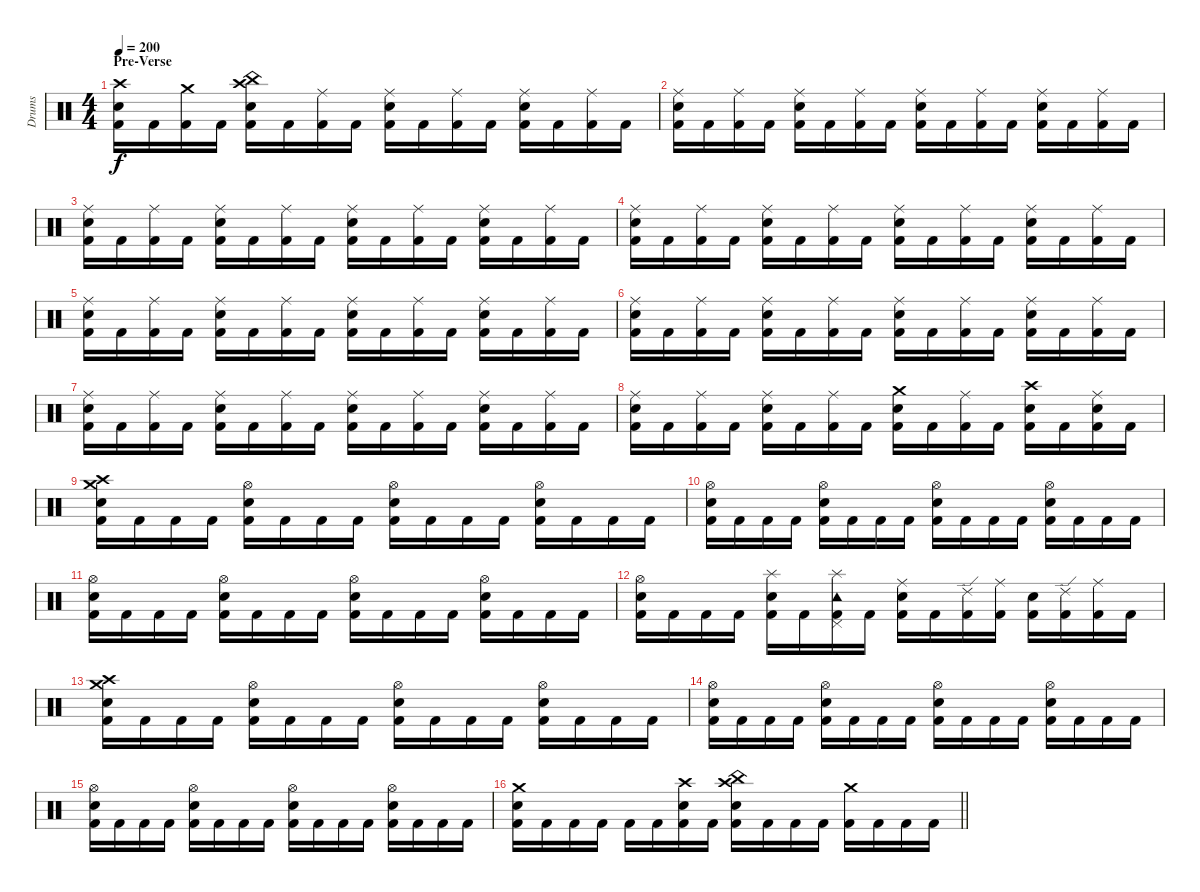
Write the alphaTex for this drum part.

\track ("Drums" "Drums") {instrument percussion}
\staff {score}
\articulation defaults
\ts (4 4)
\section ("" "Pre-Verse")
\tempo 200
\clef neutral
\ks c
("Crash high (hit)" "Electric Snare (hit)" "Kick (hit) 2").16{dy f} "Kick (hit) 2".16 ("Crash medium (hit)" "Kick (hit) 2").16 "Kick (hit) 2".16 ("China (hit)" "Crash high (hit)" "Electric Snare (hit)" "Kick (hit) 2").16 "Kick (hit) 2".16 ("Ride (middle)" "Kick (hit) 2").16 "Kick (hit) 2".16 ("Ride (middle)" "Electric Snare (hit)" "Kick (hit) 2").16 "Kick (hit) 2".16 ("Ride (middle)" "Kick (hit) 2").16 "Kick (hit) 2".16 ("Ride (middle)" "Electric Snare (hit)" "Kick (hit) 2").16 "Kick (hit) 2".16 ("Ride (middle)" "Kick (hit) 2").16 "Kick (hit) 2".16 |
("Ride (middle)" "Electric Snare (hit)" "Kick (hit) 2").16 "Kick (hit) 2".16 ("Ride (middle)" "Kick (hit) 2").16 "Kick (hit) 2".16 ("Ride (middle)" "Electric Snare (hit)" "Kick (hit) 2").16 "Kick (hit) 2".16 ("Ride (middle)" "Kick (hit) 2").16 "Kick (hit) 2".16 ("Ride (middle)" "Electric Snare (hit)" "Kick (hit) 2").16 "Kick (hit) 2".16 ("Ride (middle)" "Kick (hit) 2").16 "Kick (hit) 2".16 ("Ride (middle)" "Electric Snare (hit)" "Kick (hit) 2").16 "Kick (hit) 2".16 ("Ride (middle)" "Kick (hit) 2").16 "Kick (hit) 2".16 |
("Ride (middle)" "Electric Snare (hit)" "Kick (hit) 2").16 "Kick (hit) 2".16 ("Ride (middle)" "Kick (hit) 2").16 "Kick (hit) 2".16 ("Ride (middle)" "Electric Snare (hit)" "Kick (hit) 2").16 "Kick (hit) 2".16 ("Ride (middle)" "Kick (hit) 2").16 "Kick (hit) 2".16 ("Ride (middle)" "Electric Snare (hit)" "Kick (hit) 2").16 "Kick (hit) 2".16 ("Ride (middle)" "Kick (hit) 2").16 "Kick (hit) 2".16 ("Ride (middle)" "Electric Snare (hit)" "Kick (hit) 2").16 "Kick (hit) 2".16 ("Ride (middle)" "Kick (hit) 2").16 "Kick (hit) 2".16 |
("Ride (middle)" "Electric Snare (hit)" "Kick (hit) 2").16 "Kick (hit) 2".16 ("Ride (middle)" "Kick (hit) 2").16 "Kick (hit) 2".16 ("Ride (middle)" "Electric Snare (hit)" "Kick (hit) 2").16 "Kick (hit) 2".16 ("Ride (middle)" "Kick (hit) 2").16 "Kick (hit) 2".16 ("Ride (middle)" "Electric Snare (hit)" "Kick (hit) 2").16 "Kick (hit) 2".16 ("Ride (middle)" "Kick (hit) 2").16 "Kick (hit) 2".16 ("Ride (middle)" "Electric Snare (hit)" "Kick (hit) 2").16 "Kick (hit) 2".16 ("Ride (middle)" "Kick (hit) 2").16 "Kick (hit) 2".16 |
("Ride (middle)" "Electric Snare (hit)" "Kick (hit) 2").16 "Kick (hit) 2".16 ("Ride (middle)" "Kick (hit) 2").16 "Kick (hit) 2".16 ("Ride (middle)" "Electric Snare (hit)" "Kick (hit) 2").16 "Kick (hit) 2".16 ("Ride (middle)" "Kick (hit) 2").16 "Kick (hit) 2".16 ("Ride (middle)" "Electric Snare (hit)" "Kick (hit) 2").16 "Kick (hit) 2".16 ("Ride (middle)" "Kick (hit) 2").16 "Kick (hit) 2".16 ("Ride (middle)" "Electric Snare (hit)" "Kick (hit) 2").16 "Kick (hit) 2".16 ("Ride (middle)" "Kick (hit) 2").16 "Kick (hit) 2".16 |
("Ride (middle)" "Electric Snare (hit)" "Kick (hit) 2").16 "Kick (hit) 2".16 ("Ride (middle)" "Kick (hit) 2").16 "Kick (hit) 2".16 ("Ride (middle)" "Electric Snare (hit)" "Kick (hit) 2").16 "Kick (hit) 2".16 ("Ride (middle)" "Kick (hit) 2").16 "Kick (hit) 2".16 ("Ride (middle)" "Electric Snare (hit)" "Kick (hit) 2").16 "Kick (hit) 2".16 ("Ride (middle)" "Kick (hit) 2").16 "Kick (hit) 2".16 ("Ride (middle)" "Electric Snare (hit)" "Kick (hit) 2").16 "Kick (hit) 2".16 ("Ride (middle)" "Kick (hit) 2").16 "Kick (hit) 2".16 |
("Ride (middle)" "Electric Snare (hit)" "Kick (hit) 2").16 "Kick (hit) 2".16 ("Ride (middle)" "Kick (hit) 2").16 "Kick (hit) 2".16 ("Ride (middle)" "Electric Snare (hit)" "Kick (hit) 2").16 "Kick (hit) 2".16 ("Ride (middle)" "Kick (hit) 2").16 "Kick (hit) 2".16 ("Ride (middle)" "Electric Snare (hit)" "Kick (hit) 2").16 "Kick (hit) 2".16 ("Ride (middle)" "Kick (hit) 2").16 "Kick (hit) 2".16 ("Ride (middle)" "Electric Snare (hit)" "Kick (hit) 2").16 "Kick (hit) 2".16 ("Ride (middle)" "Kick (hit) 2").16 "Kick (hit) 2".16 |
("Ride (middle)" "Electric Snare (hit)" "Kick (hit) 2").16 "Kick (hit) 2".16 ("Ride (middle)" "Kick (hit) 2").16 "Kick (hit) 2".16 ("Ride (middle)" "Electric Snare (hit)" "Kick (hit) 2").16 "Kick (hit) 2".16 ("Ride (middle)" "Kick (hit) 2").16 "Kick (hit) 2".16 ("Crash medium (hit)" "Electric Snare (hit)" "Kick (hit) 2").16 "Kick (hit) 2".16 ("Ride (middle)" "Kick (hit) 2").16 "Kick (hit) 2".16 ("Crash high (hit)" "Electric Snare (hit)" "Kick (hit) 2").16 "Kick (hit) 2".16 ("Ride (middle)" "Electric Snare (hit)" "Kick (hit) 2").16 "Kick (hit) 2".16 |
("Crash high (hit)" "Crash medium (hit)" "Electric Snare (hit)" "Kick (hit) 2").16 "Kick (hit) 2".16 "Kick (hit) 2".16 "Kick (hit) 2".16 ("Hi-Hat (open)" "Electric Snare (hit)" "Kick (hit) 2").16 "Kick (hit) 2".16 "Kick (hit) 2".16 "Kick (hit) 2".16 ("Hi-Hat (open)" "Electric Snare (hit)" "Kick (hit) 2").16 "Kick (hit) 2".16 "Kick (hit) 2".16 "Kick (hit) 2".16 ("Hi-Hat (open)" "Electric Snare (hit)" "Kick (hit) 2").16 "Kick (hit) 2".16 "Kick (hit) 2".16 "Kick (hit) 2".16 |
("Hi-Hat (open)" "Electric Snare (hit)" "Kick (hit) 2").16 "Kick (hit) 2".16 "Kick (hit) 2".16 "Kick (hit) 2".16 ("Hi-Hat (open)" "Electric Snare (hit)" "Kick (hit) 2").16 "Kick (hit) 2".16 "Kick (hit) 2".16 "Kick (hit) 2".16 ("Hi-Hat (open)" "Electric Snare (hit)" "Kick (hit) 2").16 "Kick (hit) 2".16 "Kick (hit) 2".16 "Kick (hit) 2".16 ("Hi-Hat (open)" "Electric Snare (hit)" "Kick (hit) 2").16 "Kick (hit) 2".16 "Kick (hit) 2".16 "Kick (hit) 2".16 |
("Hi-Hat (open)" "Electric Snare (hit)" "Kick (hit) 2").16 "Kick (hit) 2".16 "Kick (hit) 2".16 "Kick (hit) 2".16 ("Hi-Hat (open)" "Electric Snare (hit)" "Kick (hit) 2").16 "Kick (hit) 2".16 "Kick (hit) 2".16 "Kick (hit) 2".16 ("Hi-Hat (open)" "Electric Snare (hit)" "Kick (hit) 2").16 "Kick (hit) 2".16 "Kick (hit) 2".16 "Kick (hit) 2".16 ("Hi-Hat (open)" "Electric Snare (hit)" "Kick (hit) 2").16 "Kick (hit) 2".16 "Kick (hit) 2".16 "Kick (hit) 2".16 |
("Hi-Hat (open)" "Electric Snare (hit)" "Kick (hit) 2").16 "Kick (hit) 2".16 "Kick (hit) 2".16 "Kick (hit) 2".16 ("Splash (hit)" "Electric Snare (hit)" "Kick (hit) 2").16 "Kick (hit) 2".16 ("Splash (hit)" "Tambourine (hit)" "Pedal Hi-Hat (hit)" "Kick (hit) 2").16 "Kick (hit) 2".16 ("Ride (middle)" "Electric Snare (hit)" "Kick (hit) 2").16 "Kick (hit) 2".16 ("Ride (edge) 2" "Kick (hit) 2").16 ("Ride (middle)" "Kick (hit) 2").16 ("Electric Snare (hit)" "Kick (hit) 2").16 ("Ride (edge) 2" "Kick (hit) 2").16 ("Ride (middle)" "Kick (hit) 2").16 "Kick (hit) 2".16 |
("Crash high (hit)" "Crash medium (hit)" "Electric Snare (hit)" "Kick (hit) 2").16 "Kick (hit) 2".16 "Kick (hit) 2".16 "Kick (hit) 2".16 ("Hi-Hat (open)" "Electric Snare (hit)" "Kick (hit) 2").16 "Kick (hit) 2".16 "Kick (hit) 2".16 "Kick (hit) 2".16 ("Hi-Hat (open)" "Electric Snare (hit)" "Kick (hit) 2").16 "Kick (hit) 2".16 "Kick (hit) 2".16 "Kick (hit) 2".16 ("Hi-Hat (open)" "Electric Snare (hit)" "Kick (hit) 2").16 "Kick (hit) 2".16 "Kick (hit) 2".16 "Kick (hit) 2".16 |
("Hi-Hat (open)" "Electric Snare (hit)" "Kick (hit) 2").16 "Kick (hit) 2".16 "Kick (hit) 2".16 "Kick (hit) 2".16 ("Hi-Hat (open)" "Electric Snare (hit)" "Kick (hit) 2").16 "Kick (hit) 2".16 "Kick (hit) 2".16 "Kick (hit) 2".16 ("Hi-Hat (open)" "Electric Snare (hit)" "Kick (hit) 2").16 "Kick (hit) 2".16 "Kick (hit) 2".16 "Kick (hit) 2".16 ("Hi-Hat (open)" "Electric Snare (hit)" "Kick (hit) 2").16 "Kick (hit) 2".16 "Kick (hit) 2".16 "Kick (hit) 2".16 |
("Hi-Hat (open)" "Electric Snare (hit)" "Kick (hit) 2").16 "Kick (hit) 2".16 "Kick (hit) 2".16 "Kick (hit) 2".16 ("Hi-Hat (open)" "Electric Snare (hit)" "Kick (hit) 2").16 "Kick (hit) 2".16 "Kick (hit) 2".16 "Kick (hit) 2".16 ("Hi-Hat (open)" "Electric Snare (hit)" "Kick (hit) 2").16 "Kick (hit) 2".16 "Kick (hit) 2".16 "Kick (hit) 2".16 ("Hi-Hat (open)" "Electric Snare (hit)" "Kick (hit) 2").16 "Kick (hit) 2".16 "Kick (hit) 2".16 "Kick (hit) 2".16 |
\barLineRight lightlight
("Crash medium (hit)" "Electric Snare (hit)" "Kick (hit) 2").16 "Kick (hit) 2".16 "Kick (hit) 2".16 "Kick (hit) 2".16 "Kick (hit) 2".16 "Kick (hit) 2".16 ("Crash high (hit)" "Electric Snare (hit)" "Kick (hit) 2").16 "Kick (hit) 2".16 ("Crash high (hit)" "China (hit)" "Electric Snare (hit)" "Kick (hit) 2").16 "Kick (hit) 2".16 "Kick (hit) 2".16 "Kick (hit) 2".16 ("Crash medium (hit)" "Kick (hit) 2").16 "Kick (hit) 2".16 "Kick (hit) 2".16 "Kick (hit) 2".16
